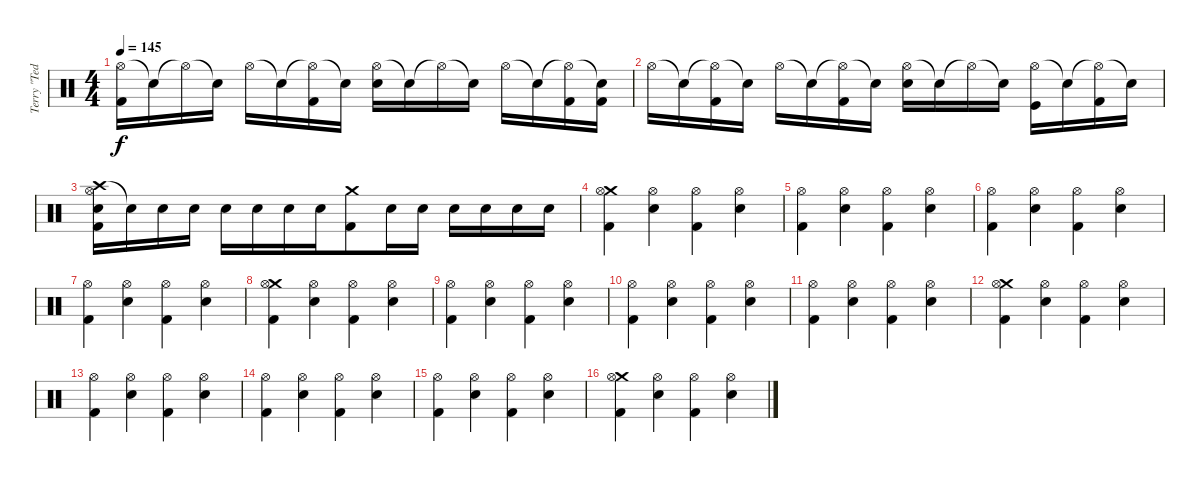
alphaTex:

\track ("Terry \"Ted\" Bozzio" "Terry \"Ted") {instrument percussion}
\staff {score}
\articulation defaults
\ts (4 4)
\tempo 145
\clef neutral
\ks c
("Hi-Hat (open)" "Kick (hit) 2").16{dy f beam merge} "Snare (hit)"{t}.16 "Hi-Hat (open)"{t}.16 "Snare (hit)"{t}.16 "Hi-Hat (open)".16 "Snare (hit)"{t}.16{beam merge} ("Hi-Hat (open)"{t} "Kick (hit) 2").16{beam merge} "Snare (hit)"{t}.16 ("Hi-Hat (open)" "Electric Snare (hit)").16 "Snare (hit)"{t}.16 "Hi-Hat (open)"{t}.16 "Snare (hit)"{t}.16 "Hi-Hat (open)".16 "Snare (hit)"{t}.16 ("Hi-Hat (open)"{t} "Kick (hit) 2").16 ("Snare (hit)"{t} "Kick (hit) 2").16 |
"Hi-Hat (open)".16{beam merge} "Snare (hit)"{t}.16 ("Hi-Hat (open)"{t} "Kick (hit) 2").16 "Snare (hit)"{t}.16 "Hi-Hat (open)".16 "Snare (hit)"{t}.16{beam merge} ("Hi-Hat (open)"{t} "Kick (hit) 2").16{beam merge} "Snare (hit)"{t}.16 ("Hi-Hat (open)" "Electric Snare (hit)").16 "Snare (hit)"{t}.16 "Hi-Hat (open)"{t}.16 "Snare (hit)"{t}.16 ("Hi-Hat (open)" "Kick (hit)").16 "Snare (hit)"{t}.16 ("Hi-Hat (open)"{t} "Kick (hit) 2").16{beam merge} "Snare (hit)"{t}.16 |
("Crash high (hit)" "Hi-Hat (open)" "Electric Snare (hit)" "Kick (hit) 2").16{beam merge} "Snare (hit)"{t}.16 "Electric Snare (hit)".16 "Electric Snare (hit)".16 "Electric Snare (hit)".16{beam merge} "Electric Snare (hit)".16{beam merge} "Electric Snare (hit)".16{beam merge} "Electric Snare (hit)".16{beam merge} ("Crash medium (hit)" "Kick (hit) 2").8{beam merge} "Electric Snare (hit)".16 "Electric Snare (hit)".16 "Electric Snare (hit)".16 "Electric Snare (hit)".16 "Electric Snare (hit)".16{beam merge} "Electric Snare (hit)".16 |
("Crash medium (hit)" "Hi-Hat (open)" "Kick (hit) 2").4 ("Hi-Hat (open)" "Electric Snare (hit)").4{beam merge} ("Hi-Hat (open)" "Kick (hit) 2").4 ("Hi-Hat (open)" "Electric Snare (hit)").4 |
("Hi-Hat (open)" "Kick (hit) 2").4{beam merge} ("Hi-Hat (open)" "Electric Snare (hit)").4 ("Hi-Hat (open)" "Kick (hit) 2").4 ("Hi-Hat (open)" "Electric Snare (hit)").4 |
("Hi-Hat (open)" "Kick (hit) 2").4 ("Hi-Hat (open)" "Electric Snare (hit)").4{beam merge} ("Hi-Hat (open)" "Kick (hit) 2").4 ("Hi-Hat (open)" "Electric Snare (hit)").4 |
("Hi-Hat (open)" "Kick (hit) 2").4{beam merge} ("Hi-Hat (open)" "Electric Snare (hit)").4 ("Hi-Hat (open)" "Kick (hit) 2").4 ("Hi-Hat (open)" "Electric Snare (hit)").4 |
("Crash medium (hit)" "Hi-Hat (open)" "Kick (hit) 2").4 ("Hi-Hat (open)" "Electric Snare (hit)").4{beam merge} ("Hi-Hat (open)" "Kick (hit) 2").4 ("Hi-Hat (open)" "Electric Snare (hit)").4 |
("Hi-Hat (open)" "Kick (hit) 2").4{beam merge} ("Hi-Hat (open)" "Electric Snare (hit)").4 ("Hi-Hat (open)" "Kick (hit) 2").4 ("Hi-Hat (open)" "Electric Snare (hit)").4 |
("Hi-Hat (open)" "Kick (hit) 2").4 ("Hi-Hat (open)" "Electric Snare (hit)").4{beam merge} ("Hi-Hat (open)" "Kick (hit) 2").4 ("Hi-Hat (open)" "Electric Snare (hit)").4 |
("Hi-Hat (open)" "Kick (hit) 2").4{beam merge} ("Hi-Hat (open)" "Electric Snare (hit)").4 ("Hi-Hat (open)" "Kick (hit) 2").4 ("Hi-Hat (open)" "Electric Snare (hit)").4 |
("Crash medium (hit)" "Hi-Hat (open)" "Kick (hit) 2").4 ("Hi-Hat (open)" "Electric Snare (hit)").4{beam merge} ("Hi-Hat (open)" "Kick (hit) 2").4 ("Hi-Hat (open)" "Electric Snare (hit)").4 |
("Hi-Hat (open)" "Kick (hit) 2").4{beam merge} ("Hi-Hat (open)" "Electric Snare (hit)").4 ("Hi-Hat (open)" "Kick (hit) 2").4 ("Hi-Hat (open)" "Electric Snare (hit)").4 |
("Hi-Hat (open)" "Kick (hit) 2").4 ("Hi-Hat (open)" "Electric Snare (hit)").4{beam merge} ("Hi-Hat (open)" "Kick (hit) 2").4 ("Hi-Hat (open)" "Electric Snare (hit)").4 |
("Hi-Hat (open)" "Kick (hit) 2").4{beam merge} ("Hi-Hat (open)" "Electric Snare (hit)").4 ("Hi-Hat (open)" "Kick (hit) 2").4 ("Hi-Hat (open)" "Electric Snare (hit)").4 |
("Crash medium (hit)" "Hi-Hat (open)" "Kick (hit) 2").4 ("Hi-Hat (open)" "Electric Snare (hit)").4{beam merge} ("Hi-Hat (open)" "Kick (hit) 2").4 ("Hi-Hat (open)" "Electric Snare (hit)").4
